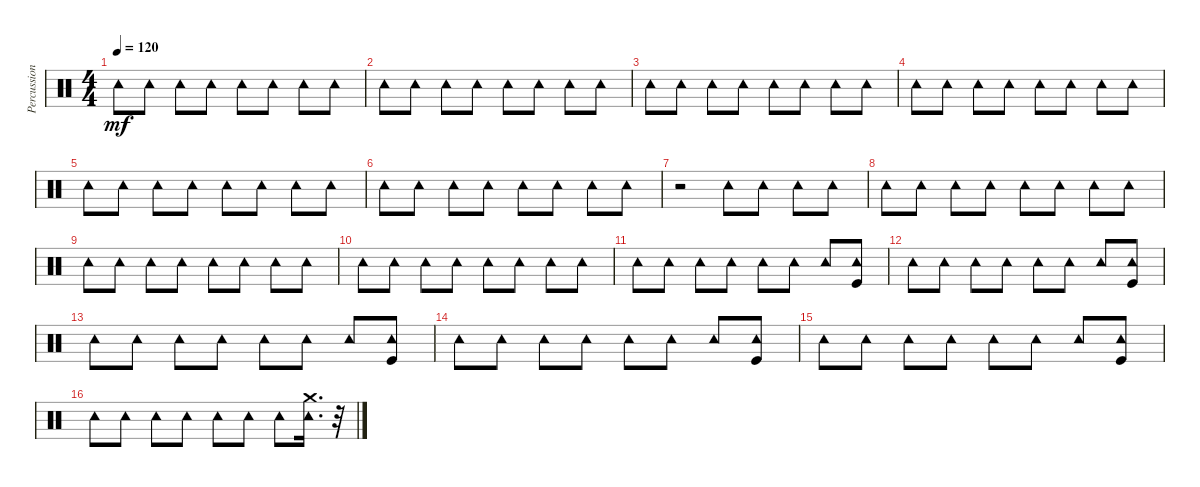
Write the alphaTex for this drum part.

\track ("Percussions" "Percussion") {instrument percussion}
\staff {score}
\articulation defaults
\ts (4 4)
\tempo 120
\clef neutral
\ks c "Tambourine (hit)".8{dy mf} "Tambourine (hit)".8 "Tambourine (hit)".8 "Tambourine (hit)".8 "Tambourine (hit)".8 "Tambourine (hit)".8 "Tambourine (hit)".8 "Tambourine (hit)".8
|
"Tambourine (hit)".8 "Tambourine (hit)".8 "Tambourine (hit)".8 "Tambourine (hit)".8 "Tambourine (hit)".8 "Tambourine (hit)".8 "Tambourine (hit)".8 "Tambourine (hit)".8 |
"Tambourine (hit)".8 "Tambourine (hit)".8 "Tambourine (hit)".8 "Tambourine (hit)".8 "Tambourine (hit)".8 "Tambourine (hit)".8 "Tambourine (hit)".8 "Tambourine (hit)".8 |
"Tambourine (hit)".8 "Tambourine (hit)".8 "Tambourine (hit)".8 "Tambourine (hit)".8 "Tambourine (hit)".8 "Tambourine (hit)".8 "Tambourine (hit)".8 "Tambourine (hit)".8 |
"Tambourine (hit)".8 "Tambourine (hit)".8 "Tambourine (hit)".8 "Tambourine (hit)".8 "Tambourine (hit)".8 "Tambourine (hit)".8 "Tambourine (hit)".8 "Tambourine (hit)".8 |
"Tambourine (hit)".8 "Tambourine (hit)".8 "Tambourine (hit)".8 "Tambourine (hit)".8 "Tambourine (hit)".8 "Tambourine (hit)".8 "Tambourine (hit)".8 "Tambourine (hit)".8 |
r.2 "Tambourine (hit)".8 "Tambourine (hit)".8 "Tambourine (hit)".8 "Tambourine (hit)".8 |
"Tambourine (hit)".8 "Tambourine (hit)".8 "Tambourine (hit)".8 "Tambourine (hit)".8 "Tambourine (hit)".8 "Tambourine (hit)".8 "Tambourine (hit)".8 "Tambourine (hit)".8 |
"Tambourine (hit)".8 "Tambourine (hit)".8 "Tambourine (hit)".8 "Tambourine (hit)".8 "Tambourine (hit)".8 "Tambourine (hit)".8 "Tambourine (hit)".8 "Tambourine (hit)".8 |
"Tambourine (hit)".8 "Tambourine (hit)".8 "Tambourine (hit)".8 "Tambourine (hit)".8 "Tambourine (hit)".8 "Tambourine (hit)".8 "Tambourine (hit)".8 "Tambourine (hit)".8 |
"Tambourine (hit)".8 "Tambourine (hit)".8 "Tambourine (hit)".8 "Tambourine (hit)".8 "Tambourine (hit)".8 "Tambourine (hit)".8 "Tambourine (hit)".8 ("Tambourine (hit)" "Kick (hit)").8 |
"Tambourine (hit)".8 "Tambourine (hit)".8 "Tambourine (hit)".8 "Tambourine (hit)".8 "Tambourine (hit)".8 "Tambourine (hit)".8 "Tambourine (hit)".8 ("Kick (hit)" "Tambourine (hit)").8 |
"Tambourine (hit)".8 "Tambourine (hit)".8 "Tambourine (hit)".8 "Tambourine (hit)".8 "Tambourine (hit)".8 "Tambourine (hit)".8 "Tambourine (hit)".8 ("Kick (hit)" "Tambourine (hit)").8 |
"Tambourine (hit)".8 "Tambourine (hit)".8 "Tambourine (hit)".8 "Tambourine (hit)".8 "Tambourine (hit)".8 "Tambourine (hit)".8 "Tambourine (hit)".8 ("Kick (hit)" "Tambourine (hit)").8 |
"Tambourine (hit)".8 "Tambourine (hit)".8 "Tambourine (hit)".8 "Tambourine (hit)".8 "Tambourine (hit)".8 "Tambourine (hit)".8 "Tambourine (hit)".8 ("Kick (hit)" "Tambourine (hit)").8 |
"Tambourine (hit)".8 "Tambourine (hit)".8 "Tambourine (hit)".8 "Tambourine (hit)".8 "Tambourine (hit)".8 "Tambourine (hit)".8 "Tambourine (hit)".8 ("Tambourine (hit)" "Crash medium (hit)").16{d} r.32
